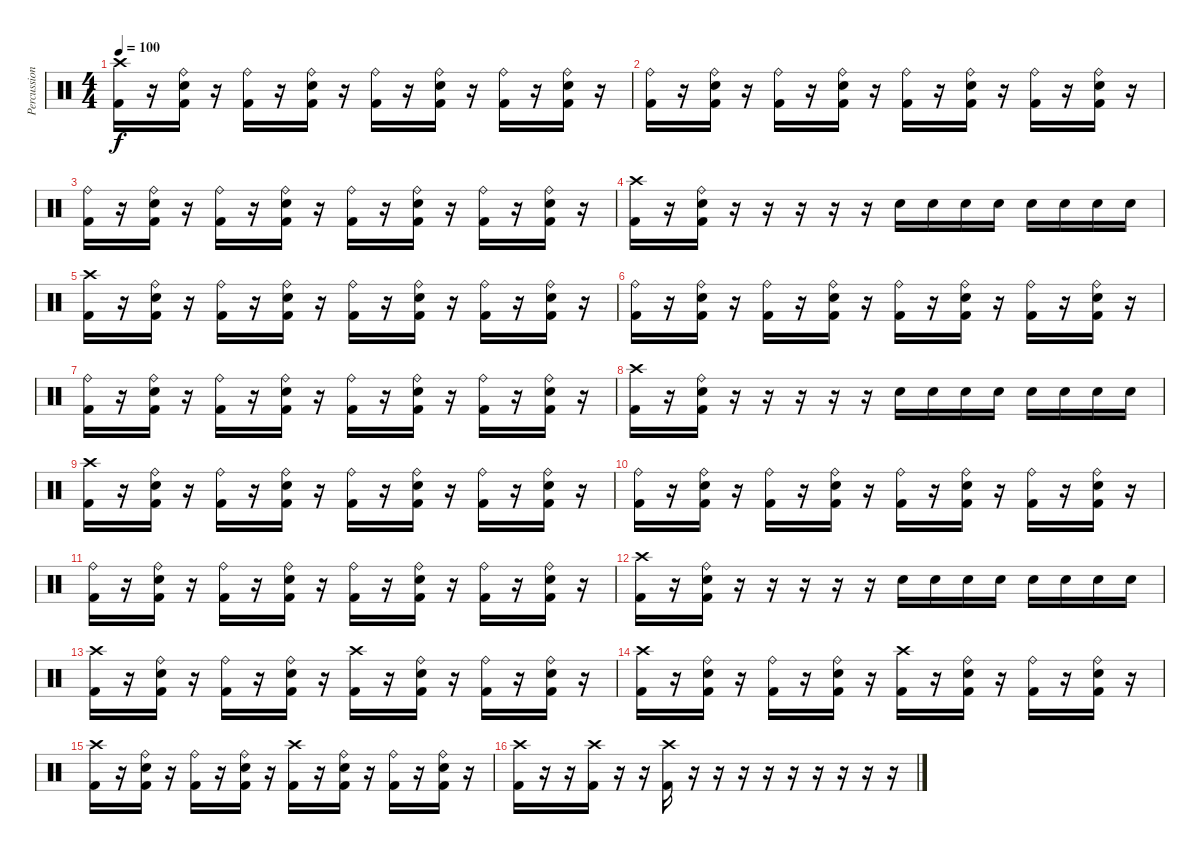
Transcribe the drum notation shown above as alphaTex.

\track ("Percussion" "Percussion") {instrument percussion}
\staff {score}
\articulation defaults
\ts (4 4)
\tempo 100
\clef neutral
\ks c
("Crash high (hit)" "Kick (hit) 2").16{dy f} r.16 ("Ride (bell)" "Snare (hit) 2" "Kick (hit) 2").16 r.16 ("Ride (bell)" "Kick (hit) 2").16 r.16 ("Ride (bell)" "Snare (hit) 2" "Kick (hit) 2").16 r.16 ("Ride (bell)" "Kick (hit) 2").16 r.16 ("Ride (bell)" "Snare (hit) 2" "Kick (hit) 2").16 r.16 ("Ride (bell)" "Kick (hit) 2").16 r.16 ("Ride (bell)" "Snare (hit) 2" "Kick (hit) 2").16 r.16 |
("Ride (bell)" "Kick (hit) 2").16 r.16 ("Ride (bell)" "Snare (hit) 2" "Kick (hit) 2").16 r.16 ("Ride (bell)" "Kick (hit) 2").16 r.16 ("Ride (bell)" "Snare (hit) 2" "Kick (hit) 2").16 r.16 ("Ride (bell)" "Kick (hit) 2").16 r.16 ("Ride (bell)" "Snare (hit) 2" "Kick (hit) 2").16 r.16 ("Ride (bell)" "Kick (hit) 2").16 r.16 ("Ride (bell)" "Snare (hit) 2" "Kick (hit) 2").16 r.16 |
("Ride (bell)" "Kick (hit) 2").16 r.16 ("Ride (bell)" "Snare (hit) 2" "Kick (hit) 2").16 r.16 ("Ride (bell)" "Kick (hit) 2").16 r.16 ("Ride (bell)" "Snare (hit) 2" "Kick (hit) 2").16 r.16 ("Ride (bell)" "Kick (hit) 2").16 r.16 ("Ride (bell)" "Snare (hit) 2" "Kick (hit) 2").16 r.16 ("Ride (bell)" "Kick (hit) 2").16 r.16 ("Ride (bell)" "Snare (hit) 2" "Kick (hit) 2").16 r.16 |
("Crash high (hit)" "Kick (hit) 2").16 r.16 ("Ride (bell)" "Snare (hit) 2" "Kick (hit) 2").16 r.16 r.16 r.16 r.16 r.16 "Snare (hit) 2".16 "Snare (hit) 2".16 "Snare (hit) 2".16 "Snare (hit) 2".16 "Snare (hit) 2".16 "Snare (hit) 2".16 "Snare (hit) 2".16 "Snare (hit) 2".16 |
("Crash high (hit)" "Kick (hit) 2").16 r.16 ("Ride (bell)" "Snare (hit) 2" "Kick (hit) 2").16 r.16 ("Ride (bell)" "Kick (hit) 2").16 r.16 ("Ride (bell)" "Snare (hit) 2" "Kick (hit) 2").16 r.16 ("Ride (bell)" "Kick (hit) 2").16 r.16 ("Ride (bell)" "Snare (hit) 2" "Kick (hit) 2").16 r.16 ("Ride (bell)" "Kick (hit) 2").16 r.16 ("Ride (bell)" "Snare (hit) 2" "Kick (hit) 2").16 r.16 |
("Ride (bell)" "Kick (hit) 2").16 r.16 ("Ride (bell)" "Snare (hit) 2" "Kick (hit) 2").16 r.16 ("Ride (bell)" "Kick (hit) 2").16 r.16 ("Ride (bell)" "Snare (hit) 2" "Kick (hit) 2").16 r.16 ("Ride (bell)" "Kick (hit) 2").16 r.16 ("Ride (bell)" "Snare (hit) 2" "Kick (hit) 2").16 r.16 ("Ride (bell)" "Kick (hit) 2").16 r.16 ("Ride (bell)" "Snare (hit) 2" "Kick (hit) 2").16 r.16 |
("Ride (bell)" "Kick (hit) 2").16 r.16 ("Ride (bell)" "Snare (hit) 2" "Kick (hit) 2").16 r.16 ("Ride (bell)" "Kick (hit) 2").16 r.16 ("Ride (bell)" "Snare (hit) 2" "Kick (hit) 2").16 r.16 ("Ride (bell)" "Kick (hit) 2").16 r.16 ("Ride (bell)" "Snare (hit) 2" "Kick (hit) 2").16 r.16 ("Ride (bell)" "Kick (hit) 2").16 r.16 ("Ride (bell)" "Snare (hit) 2" "Kick (hit) 2").16 r.16 |
("Crash high (hit)" "Kick (hit) 2").16 r.16 ("Ride (bell)" "Snare (hit) 2" "Kick (hit) 2").16 r.16 r.16 r.16 r.16 r.16 "Snare (hit) 2".16 "Snare (hit) 2".16 "Snare (hit) 2".16 "Snare (hit) 2".16 "Snare (hit) 2".16 "Snare (hit) 2".16 "Snare (hit) 2".16 "Snare (hit) 2".16 |
("Crash high (hit)" "Kick (hit) 2").16 r.16 ("Ride (bell)" "Snare (hit) 2" "Kick (hit) 2").16 r.16 ("Ride (bell)" "Kick (hit) 2").16 r.16 ("Ride (bell)" "Snare (hit) 2" "Kick (hit) 2").16 r.16 ("Ride (bell)" "Kick (hit) 2").16 r.16 ("Ride (bell)" "Snare (hit) 2" "Kick (hit) 2").16 r.16 ("Ride (bell)" "Kick (hit) 2").16 r.16 ("Ride (bell)" "Snare (hit) 2" "Kick (hit) 2").16 r.16 |
("Ride (bell)" "Kick (hit) 2").16 r.16 ("Ride (bell)" "Snare (hit) 2" "Kick (hit) 2").16 r.16 ("Ride (bell)" "Kick (hit) 2").16 r.16 ("Ride (bell)" "Snare (hit) 2" "Kick (hit) 2").16 r.16 ("Ride (bell)" "Kick (hit) 2").16 r.16 ("Ride (bell)" "Snare (hit) 2" "Kick (hit) 2").16 r.16 ("Ride (bell)" "Kick (hit) 2").16 r.16 ("Ride (bell)" "Snare (hit) 2" "Kick (hit) 2").16 r.16 |
("Ride (bell)" "Kick (hit) 2").16 r.16 ("Ride (bell)" "Snare (hit) 2" "Kick (hit) 2").16 r.16 ("Ride (bell)" "Kick (hit) 2").16 r.16 ("Ride (bell)" "Snare (hit) 2" "Kick (hit) 2").16 r.16 ("Ride (bell)" "Kick (hit) 2").16 r.16 ("Ride (bell)" "Snare (hit) 2" "Kick (hit) 2").16 r.16 ("Ride (bell)" "Kick (hit) 2").16 r.16 ("Ride (bell)" "Snare (hit) 2" "Kick (hit) 2").16 r.16 |
("Crash high (hit)" "Kick (hit) 2").16 r.16 ("Ride (bell)" "Snare (hit) 2" "Kick (hit) 2").16 r.16 r.16 r.16 r.16 r.16 "Snare (hit) 2".16 "Snare (hit) 2".16 "Snare (hit) 2".16 "Snare (hit) 2".16 "Snare (hit) 2".16 "Snare (hit) 2".16 "Snare (hit) 2".16 "Snare (hit) 2".16 |
("Crash high (hit)" "Kick (hit) 2").16 r.16 ("Ride (bell)" "Snare (hit) 2" "Kick (hit) 2").16 r.16 ("Ride (bell)" "Kick (hit) 2").16 r.16 ("Ride (bell)" "Snare (hit) 2" "Kick (hit) 2").16 r.16 ("Crash high (hit)" "Kick (hit) 2").16 r.16 ("Ride (bell)" "Snare (hit) 2" "Kick (hit) 2").16 r.16 ("Ride (bell)" "Kick (hit) 2").16 r.16 ("Ride (bell)" "Snare (hit) 2" "Kick (hit) 2").16 r.16 |
("Crash high (hit)" "Kick (hit) 2").16 r.16 ("Ride (bell)" "Snare (hit) 2" "Kick (hit) 2").16 r.16 ("Ride (bell)" "Kick (hit) 2").16 r.16 ("Ride (bell)" "Snare (hit) 2" "Kick (hit) 2").16 r.16 ("Crash high (hit)" "Kick (hit) 2").16 r.16 ("Ride (bell)" "Snare (hit) 2" "Kick (hit) 2").16 r.16 ("Ride (bell)" "Kick (hit) 2").16 r.16 ("Ride (bell)" "Snare (hit) 2" "Kick (hit) 2").16 r.16 |
("Crash high (hit)" "Kick (hit) 2").16 r.16 ("Ride (bell)" "Snare (hit) 2" "Kick (hit) 2").16 r.16 ("Ride (bell)" "Kick (hit) 2").16 r.16 ("Ride (bell)" "Snare (hit) 2" "Kick (hit) 2").16 r.16 ("Crash high (hit)" "Kick (hit) 2").16 r.16 ("Ride (bell)" "Snare (hit) 2" "Kick (hit) 2").16 r.16 ("Ride (bell)" "Kick (hit) 2").16 r.16 ("Ride (bell)" "Snare (hit) 2" "Kick (hit) 2").16 r.16 |
("Crash high (hit)" "Kick (hit) 2").16 r.16 r.16 ("Crash high (hit)" "Kick (hit) 2").16 r.16 r.16 ("Crash high (hit)" "Kick (hit) 2").16 r.16 r.16 r.16 r.16 r.16 r.16 r.16 r.16 r.16
